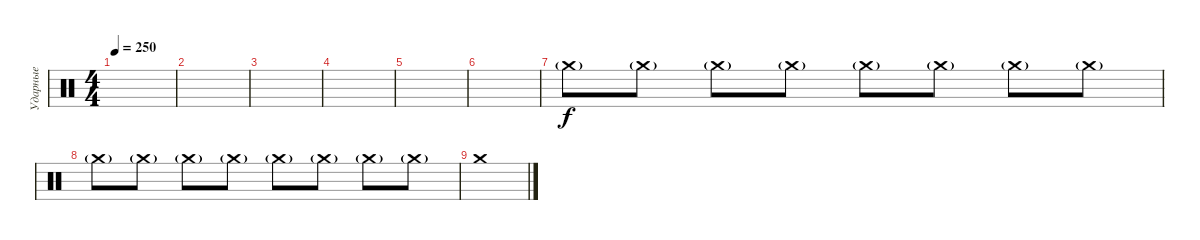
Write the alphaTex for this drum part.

\track ("Ударные" "Ударные") {instrument percussion}
\staff {score}
\articulation defaults
\ts (4 4)
\tempo 250
\clef neutral
\ks c
|
|
|
|
|
|
"Crash medium (hit)"{g}.8 "Crash medium (hit)"{g}.8 "Crash medium (hit)"{g}.8 "Crash medium (hit)"{g}.8 "Crash medium (hit)"{g}.8 "Crash medium (hit)"{g}.8 "Crash medium (hit)"{g}.8 "Crash medium (hit)"{g}.8 |
"Crash medium (hit)"{g}.8 "Crash medium (hit)"{g}.8 "Crash medium (hit)"{g}.8 "Crash medium (hit)"{g}.8 "Crash medium (hit)"{g}.8 "Crash medium (hit)"{g}.8 "Crash medium (hit)"{g}.8 "Crash medium (hit)"{g}.8 |
"Crash medium (hit)".1{dy f}
